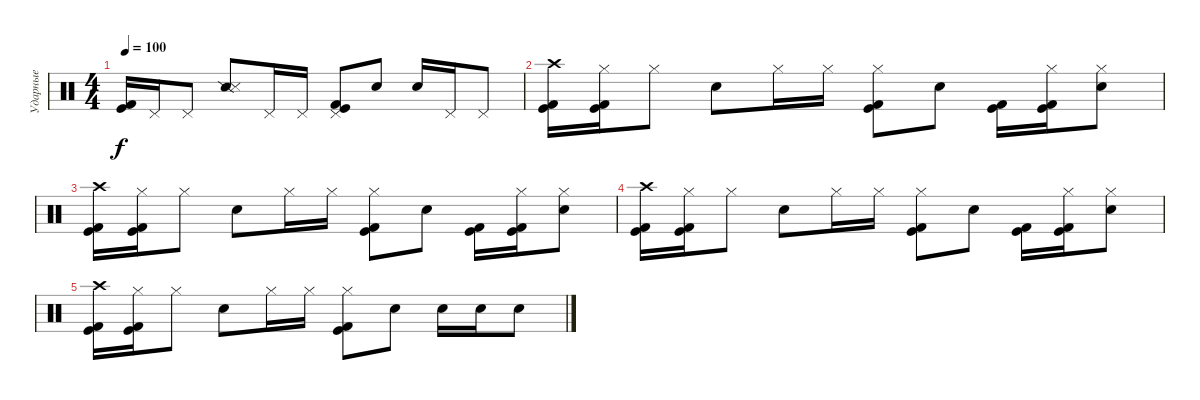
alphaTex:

\track ("Ударные" "Ударные") {instrument percussion}
\staff {score}
\articulation defaults
\ts (4 4)
\tempo 100
\clef neutral
\ks c
("Kick (hit)" "Kick (hit) 2").16{dy f} "Pedal Hi-Hat (hit)".16 "Pedal Hi-Hat (hit)".8 ("Snare (side stick) 2" "Snare (side stick) 3").8 "Pedal Hi-Hat (hit)".16 "Pedal Hi-Hat (hit)".16 ("Pedal Hi-Hat (hit)" "Kick (hit)" "Kick (hit) 2").8 "Electric Snare (hit)".8 "Electric Snare (hit)".16 "Pedal Hi-Hat (hit)".16 "Pedal Hi-Hat (hit)".8 |
("Crash high (hit)" "Kick (hit)" "Kick (hit) 2").16 ("Hi-Hat (closed)" "Kick (hit)" "Kick (hit) 2").16 "Hi-Hat (closed)".8 "Electric Snare (hit)".8 "Hi-Hat (closed)".16 "Hi-Hat (closed)".16 ("Hi-Hat (closed)" "Kick (hit)" "Kick (hit) 2").8 "Electric Snare (hit)".8 ("Kick (hit)" "Kick (hit) 2").16 ("Hi-Hat (closed)" "Kick (hit)" "Kick (hit) 2").16 ("Hi-Hat (closed)" "Electric Snare (hit)").8 |
("Crash high (hit)" "Kick (hit)" "Kick (hit) 2").16 ("Hi-Hat (closed)" "Kick (hit)" "Kick (hit) 2").16 "Hi-Hat (closed)".8 "Electric Snare (hit)".8 "Hi-Hat (closed)".16 "Hi-Hat (closed)".16 ("Hi-Hat (closed)" "Kick (hit)" "Kick (hit) 2").8 "Electric Snare (hit)".8 ("Kick (hit)" "Kick (hit) 2").16 ("Hi-Hat (closed)" "Kick (hit)" "Kick (hit) 2").16 ("Hi-Hat (closed)" "Electric Snare (hit)").8 |
("Crash high (hit)" "Kick (hit)" "Kick (hit) 2").16 ("Hi-Hat (closed)" "Kick (hit)" "Kick (hit) 2").16 "Hi-Hat (closed)".8 "Electric Snare (hit)".8 "Hi-Hat (closed)".16 "Hi-Hat (closed)".16 ("Hi-Hat (closed)" "Kick (hit)" "Kick (hit) 2").8 "Electric Snare (hit)".8 ("Kick (hit)" "Kick (hit) 2").16 ("Hi-Hat (closed)" "Kick (hit)" "Kick (hit) 2").16 ("Hi-Hat (closed)" "Electric Snare (hit)").8 |
("Crash high (hit)" "Kick (hit)" "Kick (hit) 2").16 ("Hi-Hat (closed)" "Kick (hit)" "Kick (hit) 2").16 "Hi-Hat (closed)".8 "Electric Snare (hit)".8 "Hi-Hat (closed)".16 "Hi-Hat (closed)".16 ("Hi-Hat (closed)" "Kick (hit)" "Kick (hit) 2").8 "Electric Snare (hit)".8 "Electric Snare (hit)".16 "Electric Snare (hit)".16 "Electric Snare (hit)".8
